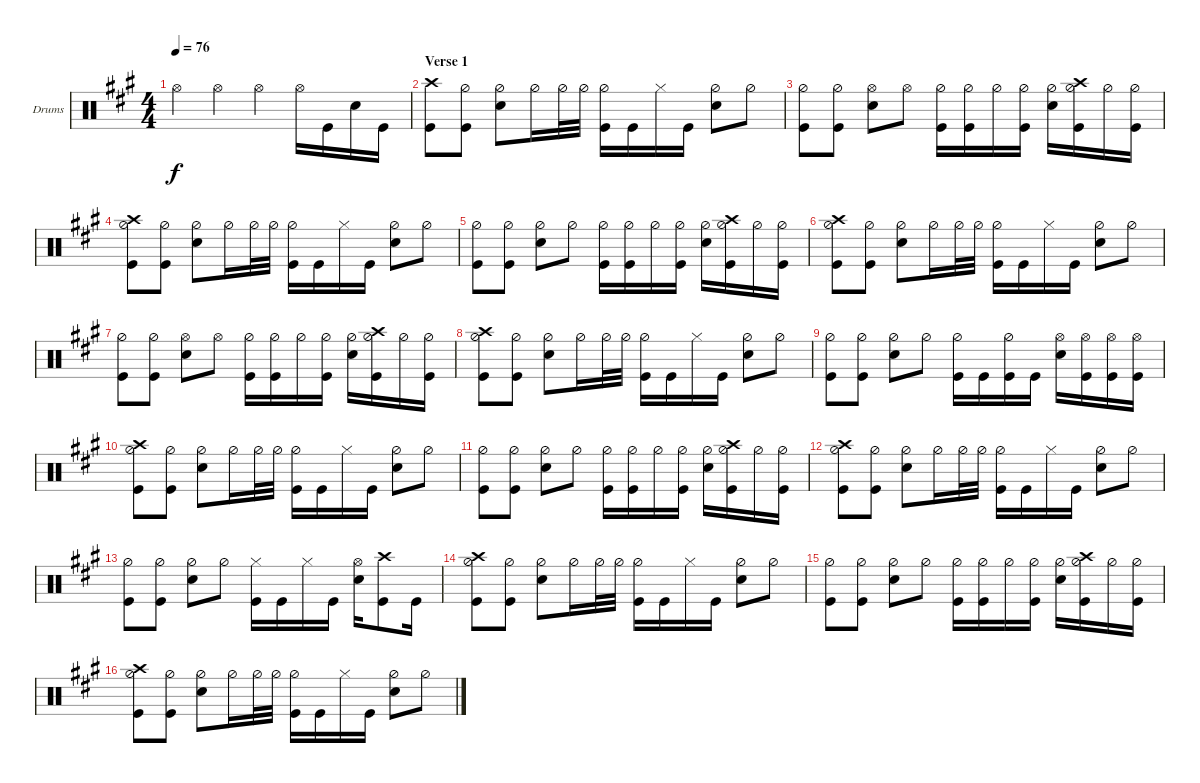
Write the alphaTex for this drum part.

\defaultSystemsLayout 4
\bracketExtendMode groupsimilarinstruments
\firstSystemTrackNameOrientation horizontal
\otherSystemsTrackNameOrientation horizontal
\track ("Drums" "Drums") {instrument percussion}
\staff {score}
\articulation defaults
\ts (4 4)
\tempo 76
\clef neutral
\ks f#minor "Hi-Hat (open)".4{dy f} "Hi-Hat (open)".4 "Hi-Hat (open)".4 "Hi-Hat (open)".16 "Kick (hit)".16 "Snare (hit) 2".16 "Kick (hit)".16
|
\section ("" "Verse 1")
("Kick (hit)" "Crash high (hit)").8 ("Kick (hit)" "Hi-Hat (half)").8 ("Hi-Hat (half)" "Snare (hit) 2").8 "Hi-Hat (half)".16 "Hi-Hat (half)".32 "Hi-Hat (half)".32 ("Hi-Hat (half)" "Kick (hit)").16 "Kick (hit)".16 "Hi-Hat (closed)".16 "Kick (hit)".16 ("Hi-Hat (half)" "Snare (hit) 2").8 "Hi-Hat (half)".8 |
("Kick (hit)" "Hi-Hat (half)").8 ("Kick (hit)" "Hi-Hat (half)").8 ("Snare (hit) 2" "Hi-Hat (open)").8 "Hi-Hat (open)".8 ("Hi-Hat (half)" "Kick (hit)").16 ("Kick (hit)" "Hi-Hat (half)").16 "Hi-Hat (half)".16 ("Kick (hit)" "Hi-Hat (half)").16 ("Hi-Hat (half)" "Snare (hit) 2").16 ("Kick (hit)" "Crash high (hit)" "Hi-Hat (half)").16 "Hi-Hat (half)".16 ("Kick (hit)" "Hi-Hat (half)").16 |
("Kick (hit)" "Crash high (hit)" "Hi-Hat (half)").8 ("Kick (hit)" "Hi-Hat (half)").8 ("Hi-Hat (half)" "Snare (hit) 2").8 "Hi-Hat (half)".16 "Hi-Hat (half)".32 "Hi-Hat (half)".32 ("Hi-Hat (half)" "Kick (hit)").16 "Kick (hit)".16 "Hi-Hat (closed)".16 "Kick (hit)".16 ("Hi-Hat (half)" "Snare (hit) 2").8 "Hi-Hat (half)".8 |
("Kick (hit)" "Hi-Hat (half)").8 ("Kick (hit)" "Hi-Hat (half)").8 ("Snare (hit) 2" "Hi-Hat (half)").8 "Hi-Hat (half)".8 ("Hi-Hat (half)" "Kick (hit)").16 ("Kick (hit)" "Hi-Hat (half)").16 "Hi-Hat (half)".16 ("Kick (hit)" "Hi-Hat (half)").16 ("Hi-Hat (half)" "Snare (hit) 2").16 ("Kick (hit)" "Crash high (hit)" "Hi-Hat (half)").16 "Hi-Hat (half)".16 ("Kick (hit)" "Hi-Hat (half)").16 |
("Kick (hit)" "Crash high (hit)" "Hi-Hat (half)").8 ("Kick (hit)" "Hi-Hat (half)").8 ("Hi-Hat (half)" "Snare (hit) 2").8 "Hi-Hat (half)".16 "Hi-Hat (half)".32 "Hi-Hat (half)".32 ("Hi-Hat (half)" "Kick (hit)").16 "Kick (hit)".16 "Hi-Hat (closed)".16 "Kick (hit)".16 ("Hi-Hat (half)" "Snare (hit) 2").8 "Hi-Hat (half)".8 |
("Kick (hit)" "Hi-Hat (half)").8 ("Kick (hit)" "Hi-Hat (half)").8 ("Snare (hit) 2" "Hi-Hat (open)").8 "Hi-Hat (open)".8 ("Hi-Hat (half)" "Kick (hit)").16 ("Kick (hit)" "Hi-Hat (half)").16 "Hi-Hat (half)".16 ("Kick (hit)" "Hi-Hat (half)").16 ("Hi-Hat (half)" "Snare (hit) 2").16 ("Kick (hit)" "Crash high (hit)" "Hi-Hat (half)").16 "Hi-Hat (half)".16 ("Kick (hit)" "Hi-Hat (half)").16 |
("Kick (hit)" "Crash high (hit)" "Hi-Hat (half)").8 ("Kick (hit)" "Hi-Hat (half)").8 ("Hi-Hat (half)" "Snare (hit) 2").8 "Hi-Hat (half)".16 "Hi-Hat (half)".32 "Hi-Hat (half)".32 ("Hi-Hat (half)" "Kick (hit)").16 "Kick (hit)".16 "Hi-Hat (closed)".16 "Kick (hit)".16 ("Hi-Hat (half)" "Snare (hit) 2").8 "Hi-Hat (half)".8 |
("Kick (hit)" "Hi-Hat (half)").8 ("Kick (hit)" "Hi-Hat (half)").8 ("Hi-Hat (half)" "Snare (hit) 2").8 "Hi-Hat (half)".8 ("Hi-Hat (half)" "Kick (hit)").16 "Kick (hit)".16 ("Hi-Hat (half)" "Kick (hit)").16 "Kick (hit)".16 ("Hi-Hat (open)" "Snare (hit) 2").16 ("Kick (hit)" "Hi-Hat (open)").16 ("Hi-Hat (open)" "Kick (hit)").16 ("Kick (hit)" "Hi-Hat (open)").16 |
("Kick (hit)" "Crash high (hit)" "Hi-Hat (half)").8 ("Kick (hit)" "Hi-Hat (half)").8 ("Hi-Hat (half)" "Snare (hit) 2").8 "Hi-Hat (half)".16 "Hi-Hat (half)".32 "Hi-Hat (half)".32 ("Hi-Hat (half)" "Kick (hit)").16 "Kick (hit)".16 "Hi-Hat (closed)".16 "Kick (hit)".16 ("Hi-Hat (half)" "Snare (hit) 2").8 "Hi-Hat (half)".8 |
("Kick (hit)" "Hi-Hat (half)").8 ("Kick (hit)" "Hi-Hat (half)").8 ("Snare (hit) 2" "Hi-Hat (half)").8 "Hi-Hat (half)".8 ("Hi-Hat (half)" "Kick (hit)").16 ("Kick (hit)" "Hi-Hat (half)").16 "Hi-Hat (half)".16 ("Kick (hit)" "Hi-Hat (half)").16 ("Hi-Hat (half)" "Snare (hit) 2").16 ("Kick (hit)" "Crash high (hit)" "Hi-Hat (half)").16 "Hi-Hat (half)".16 ("Kick (hit)" "Hi-Hat (half)").16 |
("Kick (hit)" "Crash high (hit)" "Hi-Hat (half)").8 ("Kick (hit)" "Hi-Hat (half)").8 ("Hi-Hat (half)" "Snare (hit) 2").8 "Hi-Hat (half)".16 "Hi-Hat (half)".32 "Hi-Hat (half)".32 ("Hi-Hat (half)" "Kick (hit)").16 "Kick (hit)".16 "Hi-Hat (closed)".16 "Kick (hit)".16 ("Hi-Hat (half)" "Snare (hit) 2").8 "Hi-Hat (half)".8 |
("Kick (hit)" "Hi-Hat (half)").8 ("Kick (hit)" "Hi-Hat (half)").8 ("Snare (hit) 2" "Hi-Hat (half)").8 "Hi-Hat (half)".8 ("Hi-Hat (closed)" "Kick (hit)").16 "Kick (hit)".16 "Hi-Hat (closed)".16 "Kick (hit)".16 ("Hi-Hat (open)" "Snare (hit) 2").16 ("Kick (hit)" "Crash high (hit)").8 "Kick (hit)".16 |
("Kick (hit)" "Crash high (hit)" "Hi-Hat (half)").8 ("Kick (hit)" "Hi-Hat (half)").8 ("Hi-Hat (half)" "Snare (hit) 2").8 "Hi-Hat (half)".16 "Hi-Hat (half)".32 "Hi-Hat (half)".32 ("Hi-Hat (half)" "Kick (hit)").16 "Kick (hit)".16 "Hi-Hat (closed)".16 "Kick (hit)".16 ("Hi-Hat (half)" "Snare (hit) 2").8 "Hi-Hat (half)".8 |
("Kick (hit)" "Hi-Hat (half)").8 ("Kick (hit)" "Hi-Hat (half)").8 ("Snare (hit) 2" "Hi-Hat (half)").8 "Hi-Hat (half)".8 ("Hi-Hat (half)" "Kick (hit)").16 ("Kick (hit)" "Hi-Hat (half)").16 "Hi-Hat (half)".16 ("Kick (hit)" "Hi-Hat (half)").16 ("Hi-Hat (half)" "Snare (hit) 2").16 ("Kick (hit)" "Crash high (hit)" "Hi-Hat (half)").16 "Hi-Hat (half)".16 ("Kick (hit)" "Hi-Hat (half)").16 |
("Kick (hit)" "Crash high (hit)" "Hi-Hat (half)").8 ("Kick (hit)" "Hi-Hat (half)").8 ("Hi-Hat (half)" "Snare (hit) 2").8 "Hi-Hat (half)".16 "Hi-Hat (half)".32 "Hi-Hat (half)".32 ("Hi-Hat (half)" "Kick (hit)").16 "Kick (hit)".16 "Hi-Hat (closed)".16 "Kick (hit)".16 ("Hi-Hat (half)" "Snare (hit) 2").8 "Hi-Hat (half)".8
